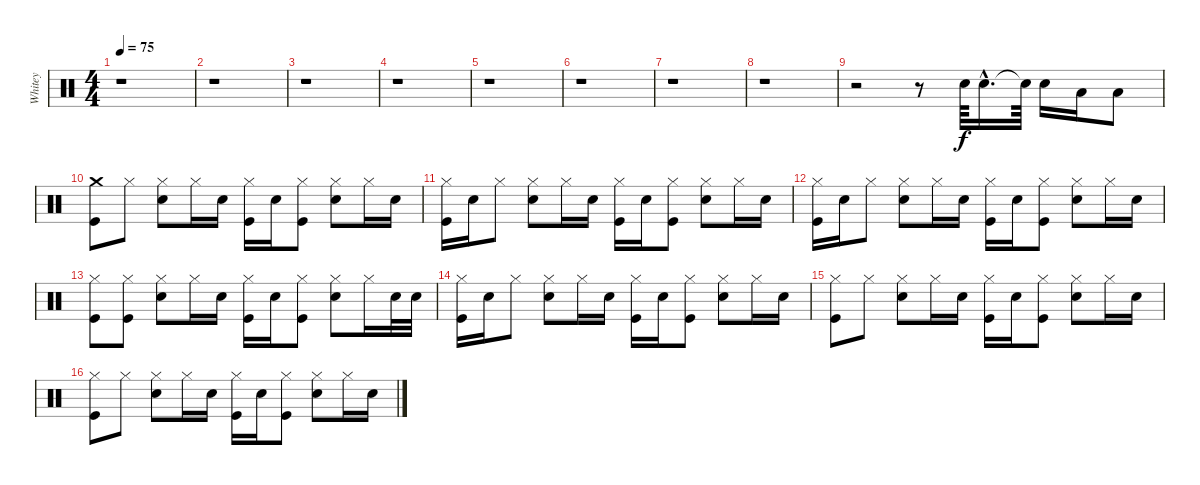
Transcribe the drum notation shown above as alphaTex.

\track ("Whitey" "Whitey") {instrument percussion}
\staff {score}
\articulation defaults
\ts (4 4)
\tempo 75
\clef neutral
\ks c
r.1{dy f} |
r.1 |
r.1 |
r.1 |
r.1 |
r.1 |
r.1 |
r.1 |
r.2 r.8 "Snare (hit) 2".64 "Snare (hit) 2"{hac}.16{d} "Snare (hit)"{t}.64 "Snare (hit) 2".16 "Low Tom (hit)".16 "Low Tom (hit)".8 |
("Crash medium (hit)" "Kick (hit)").8 "Hi-Hat (closed)".8 ("Hi-Hat (closed)" "Snare (hit) 2").8 "Hi-Hat (closed)".16 "Snare (hit) 2".16 ("Hi-Hat (closed)" "Kick (hit)").16 "Snare (hit) 2".16 ("Hi-Hat (closed)" "Kick (hit)").8 ("Hi-Hat (closed)" "Snare (hit) 2").8 "Hi-Hat (closed)".16 "Snare (hit) 2".16 |
("Hi-Hat (closed)" "Kick (hit)").16 "Snare (hit) 2".16 "Hi-Hat (closed)".8 ("Hi-Hat (closed)" "Snare (hit) 2").8 "Hi-Hat (closed)".16 "Snare (hit) 2".16 ("Hi-Hat (closed)" "Kick (hit)").16 "Snare (hit) 2".16 ("Hi-Hat (closed)" "Kick (hit)").8 ("Hi-Hat (closed)" "Snare (hit) 2").8 "Hi-Hat (closed)".16 "Snare (hit) 2".16 |
("Hi-Hat (closed)" "Kick (hit)").16 "Snare (hit) 2".16 "Hi-Hat (closed)".8 ("Hi-Hat (closed)" "Snare (hit) 2").8 "Hi-Hat (closed)".16 "Snare (hit) 2".16 ("Hi-Hat (closed)" "Kick (hit)").16 "Snare (hit) 2".16 ("Hi-Hat (closed)" "Kick (hit)").8 ("Hi-Hat (closed)" "Snare (hit) 2").8 "Hi-Hat (closed)".16 "Snare (hit) 2".16 |
("Hi-Hat (closed)" "Kick (hit)").8 ("Hi-Hat (closed)" "Kick (hit)").8 ("Hi-Hat (closed)" "Snare (hit) 2").8 "Hi-Hat (closed)".16 "Snare (hit) 2".16 ("Hi-Hat (closed)" "Kick (hit)").16 "Snare (hit) 2".16 ("Hi-Hat (closed)" "Kick (hit)").8 ("Hi-Hat (closed)" "Snare (hit) 2").8 "Hi-Hat (closed)".16 "Snare (hit) 2".32 "Snare (hit) 2".32 |
("Hi-Hat (closed)" "Kick (hit)").16 "Snare (hit) 2".16 "Hi-Hat (closed)".8 ("Hi-Hat (closed)" "Snare (hit) 2").8 "Hi-Hat (closed)".16 "Snare (hit) 2".16 ("Hi-Hat (closed)" "Kick (hit)").16 "Snare (hit) 2".16 ("Hi-Hat (closed)" "Kick (hit)").8 ("Hi-Hat (closed)" "Snare (hit) 2").8 "Hi-Hat (closed)".16 "Snare (hit) 2".16 |
("Hi-Hat (closed)" "Kick (hit)").8 "Hi-Hat (closed)".8 ("Hi-Hat (closed)" "Snare (hit) 2").8 "Hi-Hat (closed)".16 "Snare (hit) 2".16 ("Hi-Hat (closed)" "Kick (hit)").16 "Snare (hit) 2".16 ("Hi-Hat (closed)" "Kick (hit)").8 ("Hi-Hat (closed)" "Snare (hit) 2").8 "Hi-Hat (closed)".16 "Snare (hit) 2".16 |
("Hi-Hat (closed)" "Kick (hit)").8 "Hi-Hat (closed)".8 ("Hi-Hat (closed)" "Snare (hit) 2").8 "Hi-Hat (closed)".16 "Snare (hit) 2".16 ("Hi-Hat (closed)" "Kick (hit)").16 "Snare (hit) 2".16 ("Hi-Hat (closed)" "Kick (hit)").8 ("Hi-Hat (closed)" "Snare (hit) 2").8 "Hi-Hat (closed)".16 "Snare (hit) 2".16
